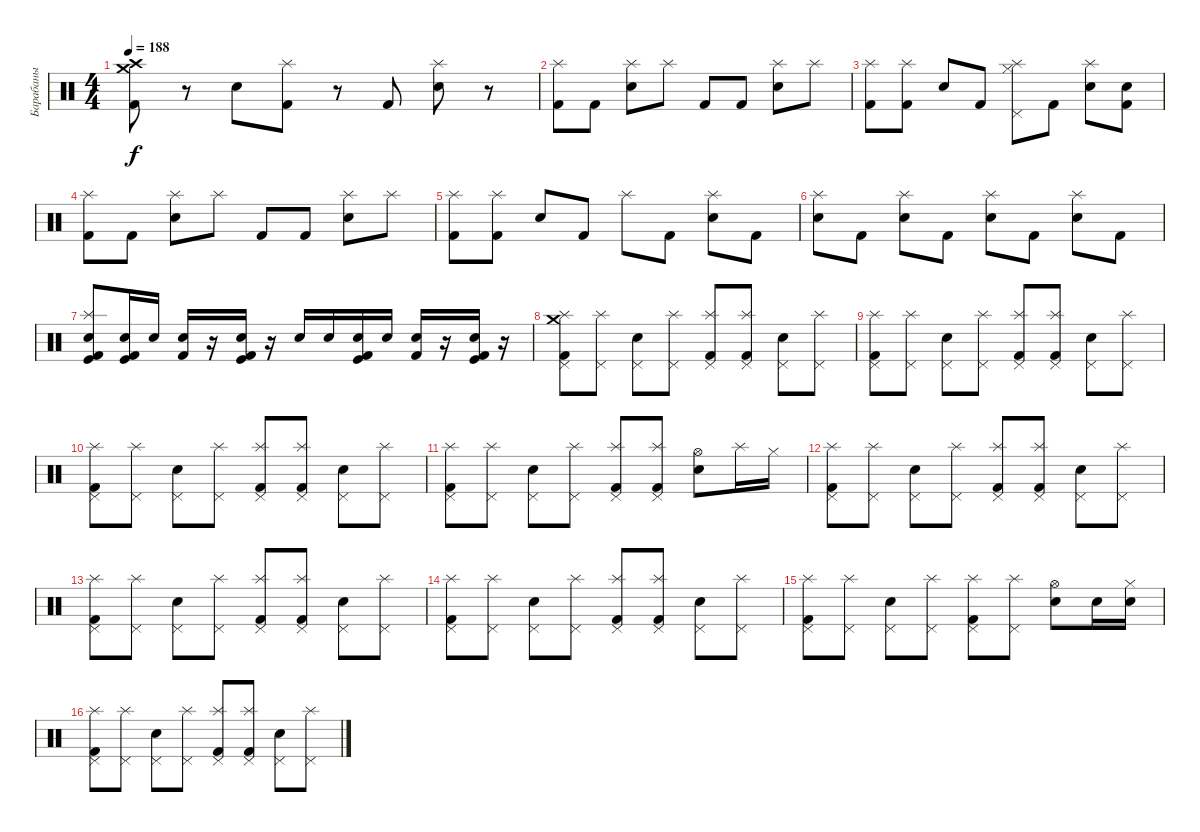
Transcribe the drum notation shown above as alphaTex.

\track ("Барабаны" "Барабаны") {instrument percussion}
\staff {score}
\articulation defaults
\ts (4 4)
\tempo 188
\clef neutral
\ks c
("Crash medium (hit)" "Crash high (hit)" "Kick (hit) 2").8{dy f} r.8 "Electric Snare (hit)".8 ("Splash (hit)" "Kick (hit) 2").8 r.8 "Kick (hit) 2".8 ("Splash (hit)" "Electric Snare (hit)").8 r.8 |
("Splash (hit)" "Kick (hit) 2").8 "Kick (hit) 2".8 ("Splash (hit)" "Electric Snare (hit)").8 "Splash (hit)".8 "Kick (hit) 2".8 "Kick (hit) 2".8 ("Splash (hit)" "Electric Snare (hit)").8 "Splash (hit)".8 |
("Splash (hit)" "Kick (hit) 2").8 ("Splash (hit)" "Kick (hit) 2").8 "Electric Snare (hit)".8 "Kick (hit) 2".8 ("Splash (hit)" "Hi-Hat (closed)" "Pedal Hi-Hat (hit)").8 "Kick (hit) 2".8 ("Splash (hit)" "Electric Snare (hit)").8 ("Electric Snare (hit)" "Kick (hit) 2").8 |
("Splash (hit)" "Kick (hit) 2").8 "Kick (hit) 2".8 ("Splash (hit)" "Electric Snare (hit)").8 "Splash (hit)".8 "Kick (hit) 2".8 "Kick (hit) 2".8 ("Splash (hit)" "Electric Snare (hit)").8 "Splash (hit)".8 |
("Splash (hit)" "Kick (hit) 2").8 ("Splash (hit)" "Kick (hit) 2").8 "Electric Snare (hit)".8 "Kick (hit) 2".8 "Splash (hit)".8 "Kick (hit) 2".8 ("Splash (hit)" "Electric Snare (hit)").8 "Kick (hit) 2".8 |
("Splash (hit)" "Electric Snare (hit)").8 "Kick (hit) 2".8 ("Splash (hit)" "Electric Snare (hit)").8 "Kick (hit) 2".8 ("Splash (hit)" "Electric Snare (hit)").8 "Kick (hit) 2".8 ("Splash (hit)" "Electric Snare (hit)").8 "Kick (hit) 2".8 |
("Splash (hit)" "Electric Snare (hit)" "Kick (hit)" "Kick (hit) 2").8 ("Kick (hit) 2" "Kick (hit)" "Electric Snare (hit)").16 "Electric Snare (hit)".16 ("Kick (hit) 2" "Electric Snare (hit)").16 r.16 ("Kick (hit) 2" "Kick (hit)" "Electric Snare (hit)").16 r.16 "Electric Snare (hit)".16 "Electric Snare (hit)".16 ("Kick (hit) 2" "Kick (hit)" "Electric Snare (hit)").16 "Electric Snare (hit)".16 ("Kick (hit) 2" "Electric Snare (hit)").16 r.16 ("Kick (hit) 2" "Kick (hit)" "Electric Snare (hit)").16 r.16 |
("Crash medium (hit)" "Pedal Hi-Hat (hit)" "Kick (hit) 2" "Splash (hit)").8 ("Pedal Hi-Hat (hit)" "Splash (hit)").8 ("Pedal Hi-Hat (hit)" "Electric Snare (hit)").8 ("Pedal Hi-Hat (hit)" "Splash (hit)").8 ("Pedal Hi-Hat (hit)" "Kick (hit) 2" "Splash (hit)").8 ("Pedal Hi-Hat (hit)" "Kick (hit) 2" "Splash (hit)").8 ("Pedal Hi-Hat (hit)" "Electric Snare (hit)").8 ("Pedal Hi-Hat (hit)" "Splash (hit)").8 |
("Pedal Hi-Hat (hit)" "Kick (hit) 2" "Splash (hit)").8 ("Pedal Hi-Hat (hit)" "Splash (hit)").8 ("Pedal Hi-Hat (hit)" "Electric Snare (hit)").8 ("Pedal Hi-Hat (hit)" "Splash (hit)").8 ("Pedal Hi-Hat (hit)" "Kick (hit) 2" "Splash (hit)").8 ("Pedal Hi-Hat (hit)" "Kick (hit) 2" "Splash (hit)").8 ("Pedal Hi-Hat (hit)" "Electric Snare (hit)").8 ("Pedal Hi-Hat (hit)" "Splash (hit)").8 |
("Pedal Hi-Hat (hit)" "Kick (hit) 2" "Splash (hit)").8 ("Pedal Hi-Hat (hit)" "Splash (hit)").8 ("Pedal Hi-Hat (hit)" "Electric Snare (hit)").8 ("Pedal Hi-Hat (hit)" "Splash (hit)").8 ("Pedal Hi-Hat (hit)" "Kick (hit) 2" "Splash (hit)").8 ("Pedal Hi-Hat (hit)" "Kick (hit) 2" "Splash (hit)").8 ("Pedal Hi-Hat (hit)" "Electric Snare (hit)").8 ("Pedal Hi-Hat (hit)" "Splash (hit)").8 |
("Pedal Hi-Hat (hit)" "Kick (hit) 2" "Splash (hit)").8 ("Pedal Hi-Hat (hit)" "Splash (hit)").8 ("Pedal Hi-Hat (hit)" "Electric Snare (hit)").8 ("Pedal Hi-Hat (hit)" "Splash (hit)").8 ("Pedal Hi-Hat (hit)" "Kick (hit) 2" "Splash (hit)").8 ("Pedal Hi-Hat (hit)" "Kick (hit) 2" "Splash (hit)").8 ("Hi-Hat (open)" "Electric Snare (hit)").8 "Splash (hit)".16 "Hi-Hat (closed)".16 |
("Pedal Hi-Hat (hit)" "Kick (hit) 2" "Splash (hit)").8 ("Pedal Hi-Hat (hit)" "Splash (hit)").8 ("Pedal Hi-Hat (hit)" "Electric Snare (hit)").8 ("Pedal Hi-Hat (hit)" "Splash (hit)").8 ("Pedal Hi-Hat (hit)" "Kick (hit) 2" "Splash (hit)").8 ("Pedal Hi-Hat (hit)" "Kick (hit) 2" "Splash (hit)").8 ("Pedal Hi-Hat (hit)" "Electric Snare (hit)").8 ("Pedal Hi-Hat (hit)" "Splash (hit)").8 |
("Pedal Hi-Hat (hit)" "Kick (hit) 2" "Splash (hit)").8 ("Pedal Hi-Hat (hit)" "Splash (hit)").8 ("Pedal Hi-Hat (hit)" "Electric Snare (hit)").8 ("Pedal Hi-Hat (hit)" "Splash (hit)").8 ("Pedal Hi-Hat (hit)" "Kick (hit) 2" "Splash (hit)").8 ("Pedal Hi-Hat (hit)" "Kick (hit) 2" "Splash (hit)").8 ("Pedal Hi-Hat (hit)" "Electric Snare (hit)").8 ("Pedal Hi-Hat (hit)" "Splash (hit)").8 |
("Pedal Hi-Hat (hit)" "Kick (hit) 2" "Splash (hit)").8 ("Pedal Hi-Hat (hit)" "Splash (hit)").8 ("Pedal Hi-Hat (hit)" "Electric Snare (hit)").8 ("Pedal Hi-Hat (hit)" "Splash (hit)").8 ("Pedal Hi-Hat (hit)" "Kick (hit) 2" "Splash (hit)").8 ("Pedal Hi-Hat (hit)" "Kick (hit) 2" "Splash (hit)").8 ("Pedal Hi-Hat (hit)" "Electric Snare (hit)").8 ("Pedal Hi-Hat (hit)" "Splash (hit)").8 |
("Pedal Hi-Hat (hit)" "Kick (hit) 2" "Splash (hit)").8 ("Pedal Hi-Hat (hit)" "Splash (hit)").8 ("Electric Snare (hit)" "Pedal Hi-Hat (hit)").8 ("Pedal Hi-Hat (hit)" "Splash (hit)").8 ("Pedal Hi-Hat (hit)" "Kick (hit) 2" "Splash (hit)").8 ("Pedal Hi-Hat (hit)" "Splash (hit)").8 ("Hi-Hat (open)" "Electric Snare (hit)").8 "Electric Snare (hit)".16 ("Hi-Hat (closed)" "Electric Snare (hit)").16 |
("Splash (hit)" "Pedal Hi-Hat (hit)" "Kick (hit) 2").8 ("Splash (hit)" "Pedal Hi-Hat (hit)").8 ("Pedal Hi-Hat (hit)" "Electric Snare (hit)").8 ("Splash (hit)" "Pedal Hi-Hat (hit)").8 ("Splash (hit)" "Pedal Hi-Hat (hit)" "Kick (hit) 2").8 ("Splash (hit)" "Pedal Hi-Hat (hit)" "Kick (hit) 2").8 ("Pedal Hi-Hat (hit)" "Electric Snare (hit)").8 ("Splash (hit)" "Pedal Hi-Hat (hit)").8
